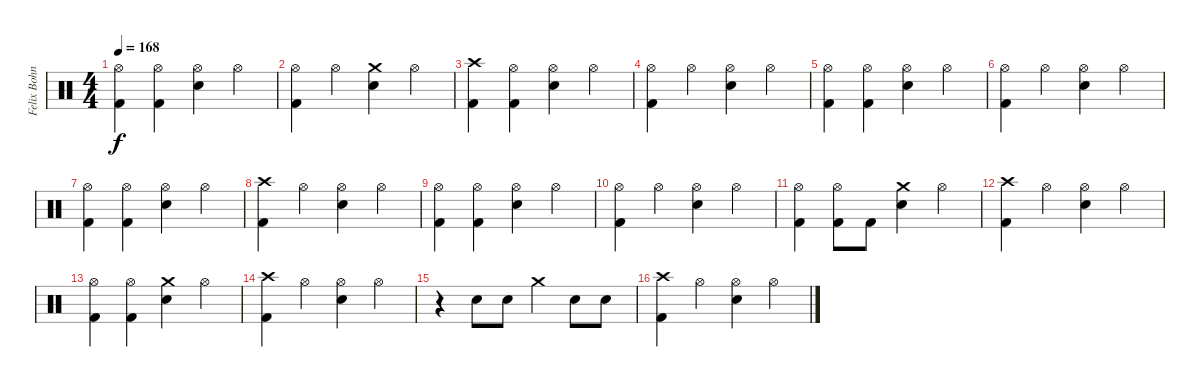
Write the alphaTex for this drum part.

\track ("Felix Bohnke" "Felix Bohn") {instrument percussion}
\staff {score}
\articulation defaults
\ts (4 4)
\tempo 168
\clef neutral
\ks c
("Hi-Hat (open)" "Kick (hit) 2").4{dy f} ("Hi-Hat (open)" "Kick (hit) 2").4 ("Hi-Hat (open)" "Snare (hit) 2").4 "Hi-Hat (open)".4 |
("Hi-Hat (open)" "Kick (hit) 2").4 "Hi-Hat (open)".4 ("Crash medium (hit)" "Snare (hit) 2").4 "Hi-Hat (open)".4 |
("Crash high (hit)" "Kick (hit) 2").4 ("Hi-Hat (open)" "Kick (hit) 2").4 ("Hi-Hat (open)" "Snare (hit) 2").4 "Hi-Hat (open)".4 |
("Hi-Hat (open)" "Kick (hit) 2").4 "Hi-Hat (open)".4 ("Hi-Hat (open)" "Snare (hit) 2").4 "Hi-Hat (open)".4 |
("Hi-Hat (open)" "Kick (hit) 2").4 ("Hi-Hat (open)" "Kick (hit) 2").4 ("Hi-Hat (open)" "Snare (hit) 2").4 "Hi-Hat (open)".4 |
("Hi-Hat (open)" "Kick (hit) 2").4 "Hi-Hat (open)".4 ("Hi-Hat (open)" "Snare (hit) 2").4 "Hi-Hat (open)".4 |
("Hi-Hat (open)" "Kick (hit) 2").4 ("Hi-Hat (open)" "Kick (hit) 2").4 ("Hi-Hat (open)" "Snare (hit) 2").4 "Hi-Hat (open)".4 |
("Crash high (hit)" "Kick (hit) 2").4 "Hi-Hat (open)".4 ("Hi-Hat (open)" "Snare (hit) 2").4 "Hi-Hat (open)".4 |
("Hi-Hat (open)" "Kick (hit) 2").4 ("Hi-Hat (open)" "Kick (hit) 2").4 ("Hi-Hat (open)" "Snare (hit) 2").4 "Hi-Hat (open)".4 |
("Hi-Hat (open)" "Kick (hit) 2").4 "Hi-Hat (open)".4 ("Hi-Hat (open)" "Snare (hit) 2").4 "Hi-Hat (open)".4 |
("Hi-Hat (open)" "Kick (hit) 2").4 ("Hi-Hat (open)" "Kick (hit) 2").8 "Kick (hit) 2".8 ("Crash medium (hit)" "Snare (hit) 2").4 "Hi-Hat (open)".4 |
("Crash high (hit)" "Kick (hit) 2").4 "Hi-Hat (open)".4 ("Hi-Hat (open)" "Snare (hit) 2").4 "Hi-Hat (open)".4 |
("Hi-Hat (open)" "Kick (hit) 2").4 ("Hi-Hat (open)" "Kick (hit) 2").4 ("Crash medium (hit)" "Snare (hit) 2").4 "Hi-Hat (open)".4 |
("Crash high (hit)" "Kick (hit) 2").4 "Hi-Hat (open)".4 ("Hi-Hat (open)" "Snare (hit) 2").4 "Hi-Hat (open)".4 |
r.4 "Snare (hit) 2".8 "Snare (hit) 2".8 "Crash medium (hit)".4 "Snare (hit) 2".8 "Snare (hit) 2".8 |
("Crash high (hit)" "Kick (hit) 2").4 "Hi-Hat (open)".4 ("Hi-Hat (open)" "Snare (hit) 2").4 "Hi-Hat (open)".4
